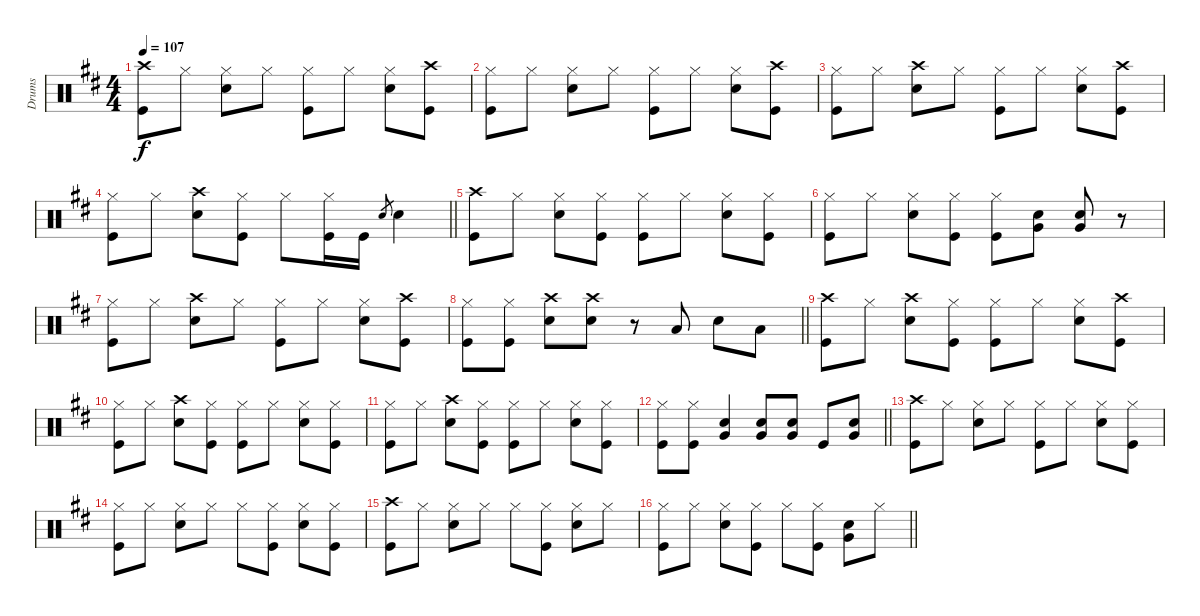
\track ("Drums" "Drums") {instrument percussion}
\staff {score}
\articulation defaults
\ts (4 4)
\tempo 107
\clef neutral
\ks d
("Crash high (hit)" "Kick (hit)").8{dy f} "Hi-Hat (closed)".8 ("Hi-Hat (closed)" "Snare (hit) 2").8 "Hi-Hat (closed)".8 ("Hi-Hat (closed)" "Kick (hit)").8 "Hi-Hat (closed)".8 ("Hi-Hat (closed)" "Snare (hit) 2").8 ("Crash high (hit)" "Kick (hit)").8 |
("Hi-Hat (closed)" "Kick (hit)").8 "Hi-Hat (closed)".8 ("Hi-Hat (closed)" "Snare (hit) 2").8 "Hi-Hat (closed)".8 ("Hi-Hat (closed)" "Kick (hit)").8 "Hi-Hat (closed)".8 ("Hi-Hat (closed)" "Snare (hit) 2").8 ("Crash high (hit)" "Kick (hit)").8 |
("Hi-Hat (closed)" "Kick (hit)").8 "Hi-Hat (closed)".8 ("Crash high (hit)" "Snare (hit) 2").8 "Hi-Hat (closed)".8 ("Hi-Hat (closed)" "Kick (hit)").8 "Hi-Hat (closed)".8 ("Hi-Hat (closed)" "Snare (hit) 2").8 ("Crash high (hit)" "Kick (hit)").8 |
\barLineRight lightlight
("Hi-Hat (closed)" "Kick (hit)").8 "Hi-Hat (closed)".8 ("Crash high (hit)" "Snare (hit) 2").8 ("Hi-Hat (closed)" "Kick (hit)").8 "Hi-Hat (closed)".8 ("Hi-Hat (closed)" "Kick (hit)").16 "Kick (hit)".16 "Snare (hit) 2".8{gr} "Snare (hit) 2".4 |
("Crash high (hit)" "Kick (hit)").8 "Hi-Hat (closed)".8 ("Hi-Hat (closed)" "Snare (hit) 2").8 ("Hi-Hat (closed)" "Kick (hit)").8 ("Hi-Hat (closed)" "Kick (hit)").8 "Hi-Hat (closed)".8 ("Hi-Hat (closed)" "Snare (hit) 2").8 ("Hi-Hat (closed)" "Kick (hit)").8 |
("Hi-Hat (closed)" "Kick (hit)").8 "Hi-Hat (closed)".8 ("Hi-Hat (closed)" "Snare (hit) 2").8 ("Hi-Hat (closed)" "Kick (hit)").8 ("Hi-Hat (closed)" "Kick (hit)").8 ("Snare (hit) 2" "Very Low Tom (hit)").8 ("Snare (hit) 2" "Very Low Tom (hit)").8 r.8 |
("Hi-Hat (closed)" "Kick (hit)").8 "Hi-Hat (closed)".8 ("Crash high (hit)" "Snare (hit) 2").8 "Hi-Hat (closed)".8 ("Hi-Hat (closed)" "Kick (hit)").8 "Hi-Hat (closed)".8 ("Hi-Hat (closed)" "Snare (hit) 2").8 ("Crash high (hit)" "Kick (hit)").8 |
\barLineRight lightlight
("Hi-Hat (closed)" "Kick (hit)").8 ("Hi-Hat (closed)" "Kick (hit)").8 ("Crash high (hit)" "Snare (hit) 2").8 ("Crash high (hit)" "Snare (hit) 2").8 r.8 "Low Tom (hit)".8 "Snare (hit) 2".8 "Low Tom (hit)".8 |
("Crash high (hit)" "Kick (hit)").8 "Hi-Hat (closed)".8 ("Crash high (hit)" "Snare (hit) 2").8 ("Hi-Hat (closed)" "Kick (hit)").8 ("Hi-Hat (closed)" "Kick (hit)").8 "Hi-Hat (closed)".8 ("Hi-Hat (closed)" "Snare (hit) 2").8 ("Crash high (hit)" "Kick (hit)").8 |
("Hi-Hat (closed)" "Kick (hit)").8 "Hi-Hat (closed)".8 ("Crash high (hit)" "Snare (hit) 2").8 ("Hi-Hat (closed)" "Kick (hit)").8 ("Hi-Hat (closed)" "Kick (hit)").8 "Hi-Hat (closed)".8 ("Hi-Hat (closed)" "Snare (hit) 2").8 ("Hi-Hat (closed)" "Kick (hit)").8 |
("Hi-Hat (closed)" "Kick (hit)").8 "Hi-Hat (closed)".8 ("Crash high (hit)" "Snare (hit) 2").8 ("Hi-Hat (closed)" "Kick (hit)").8 ("Hi-Hat (closed)" "Kick (hit)").8 "Hi-Hat (closed)".8 ("Hi-Hat (closed)" "Snare (hit) 2").8 ("Hi-Hat (closed)" "Kick (hit)").8 |
\barLineRight lightlight
("Hi-Hat (closed)" "Kick (hit)").8 ("Hi-Hat (closed)" "Kick (hit)").8 ("Snare (hit) 2" "Very Low Tom (hit)").4 ("Snare (hit) 2" "Very Low Tom (hit)").8 ("Snare (hit) 2" "Very Low Tom (hit)").8 "Kick (hit)".8 ("Snare (hit) 2" "Very Low Tom (hit)").8 |
("Crash high (hit)" "Kick (hit)").8 "Hi-Hat (closed)".8 ("Hi-Hat (closed)" "Snare (hit) 2").8 "Hi-Hat (closed)".8 ("Hi-Hat (closed)" "Kick (hit)").8 "Hi-Hat (closed)".8 ("Hi-Hat (closed)" "Snare (hit) 2").8 ("Hi-Hat (closed)" "Kick (hit)").8 |
("Hi-Hat (closed)" "Kick (hit)").8 "Hi-Hat (closed)".8 ("Hi-Hat (closed)" "Snare (hit) 2").8 "Hi-Hat (closed)".8 "Hi-Hat (closed)".8 ("Hi-Hat (closed)" "Kick (hit)").8 ("Hi-Hat (closed)" "Snare (hit) 2").8 ("Hi-Hat (closed)" "Kick (hit)").8 |
("Crash high (hit)" "Kick (hit)").8 "Hi-Hat (closed)".8 ("Hi-Hat (closed)" "Snare (hit) 2").8 "Hi-Hat (closed)".8 "Hi-Hat (closed)".8 ("Hi-Hat (closed)" "Kick (hit)").8 ("Hi-Hat (closed)" "Snare (hit) 2").8 "Hi-Hat (closed)".8 |
\barLineRight lightlight
("Hi-Hat (closed)" "Kick (hit)").8 "Hi-Hat (closed)".8 ("Hi-Hat (closed)" "Snare (hit) 2").8 ("Hi-Hat (closed)" "Kick (hit)").8 "Hi-Hat (closed)".8 ("Hi-Hat (closed)" "Kick (hit)").8 ("Snare (hit) 2" "Very Low Tom (hit)").8 "Hi-Hat (closed)".8
